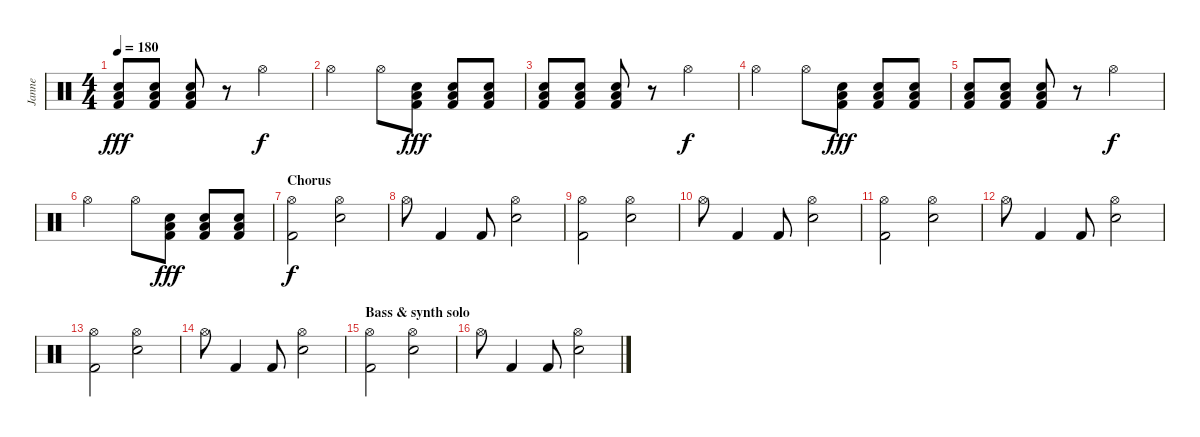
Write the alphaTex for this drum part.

\track ("Janne" "Janne") {instrument percussion}
\staff {score}
\articulation defaults
\ts (4 4)
\tempo 180
\clef neutral
\ks c
("Low Floor Tom (hit)" "Electric Snare (hit)" "Kick (hit) 2").8{dy fff} ("Low Floor Tom (hit)" "Electric Snare (hit)" "Kick (hit) 2").8 ("Low Floor Tom (hit)" "Electric Snare (hit)" "Kick (hit) 2").8 r.8 "Hi-Hat (open)".2{dy f} |
"Hi-Hat (open)".2 "Hi-Hat (open)".8 ("Low Floor Tom (hit)" "Electric Snare (hit)" "Kick (hit) 2").8{dy fff} ("Low Floor Tom (hit)" "Electric Snare (hit)" "Kick (hit) 2").8 ("Low Floor Tom (hit)" "Electric Snare (hit)" "Kick (hit) 2").8 |
("Low Floor Tom (hit)" "Electric Snare (hit)" "Kick (hit) 2").8 ("Low Floor Tom (hit)" "Electric Snare (hit)" "Kick (hit) 2").8 ("Low Floor Tom (hit)" "Electric Snare (hit)" "Kick (hit) 2").8 r.8 "Hi-Hat (open)".2{dy f} |
"Hi-Hat (open)".2 "Hi-Hat (open)".8 ("Low Floor Tom (hit)" "Electric Snare (hit)" "Kick (hit) 2").8{dy fff} ("Low Floor Tom (hit)" "Electric Snare (hit)" "Kick (hit) 2").8 ("Low Floor Tom (hit)" "Electric Snare (hit)" "Kick (hit) 2").8 |
("Low Floor Tom (hit)" "Electric Snare (hit)" "Kick (hit) 2").8 ("Low Floor Tom (hit)" "Electric Snare (hit)" "Kick (hit) 2").8 ("Low Floor Tom (hit)" "Electric Snare (hit)" "Kick (hit) 2").8 r.8 "Hi-Hat (open)".2{dy f} |
"Hi-Hat (open)".2 "Hi-Hat (open)".8 ("Low Floor Tom (hit)" "Electric Snare (hit)" "Kick (hit) 2").8{dy fff} ("Low Floor Tom (hit)" "Electric Snare (hit)" "Kick (hit) 2").8 ("Low Floor Tom (hit)" "Electric Snare (hit)" "Kick (hit) 2").8 |
\section ("" "Chorus")
("Hi-Hat (open)" "Kick (hit) 2").2{dy f} ("Hi-Hat (open)" "Electric Snare (hit)").2 |
"Hi-Hat (open)".8 "Kick (hit) 2".4 "Kick (hit) 2".8 ("Hi-Hat (open)" "Electric Snare (hit)").2 |
("Hi-Hat (open)" "Kick (hit) 2").2 ("Hi-Hat (open)" "Electric Snare (hit)").2 |
"Hi-Hat (open)".8 "Kick (hit) 2".4 "Kick (hit) 2".8 ("Hi-Hat (open)" "Electric Snare (hit)").2 |
("Hi-Hat (open)" "Kick (hit) 2").2 ("Hi-Hat (open)" "Electric Snare (hit)").2 |
"Hi-Hat (open)".8 "Kick (hit) 2".4 "Kick (hit) 2".8 ("Hi-Hat (open)" "Electric Snare (hit)").2 |
("Hi-Hat (open)" "Kick (hit) 2").2 ("Hi-Hat (open)" "Electric Snare (hit)").2 |
"Hi-Hat (open)".8 "Kick (hit) 2".4 "Kick (hit) 2".8 ("Hi-Hat (open)" "Electric Snare (hit)").2 |
\section ("" "Bass & synth solo")
("Hi-Hat (open)" "Kick (hit) 2").2 ("Hi-Hat (open)" "Electric Snare (hit)").2 |
"Hi-Hat (open)".8 "Kick (hit) 2".4 "Kick (hit) 2".8 ("Hi-Hat (open)" "Electric Snare (hit)").2
